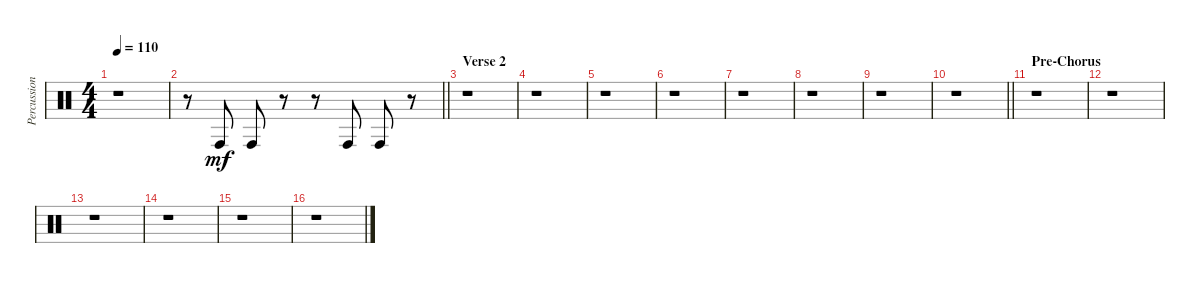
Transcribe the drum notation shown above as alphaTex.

\track ("Percussion" "Percussion") {instrument percussion}
\staff {score}
\articulation defaults
\ts (4 4)
\tempo 110
\clef neutral
\ks c
r.1{dy mp} |
\barLineRight lightlight
r.8{balance 1} "Conga high (hit)".8{dy mf} "Conga high (hit)".8 r.8 r.8 "Conga high (hit)".8 "Conga high (hit)".8 r.8 |
\section ("" "Verse 2")
r.1 |
r.1 |
r.1 |
r.1 |
r.1 |
r.1 |
r.1 |
\barLineRight lightlight
r.1 |
\section ("" "Pre-Chorus")
r.1 |
r.1 |
r.1 |
r.1 |
r.1 |
r.1
